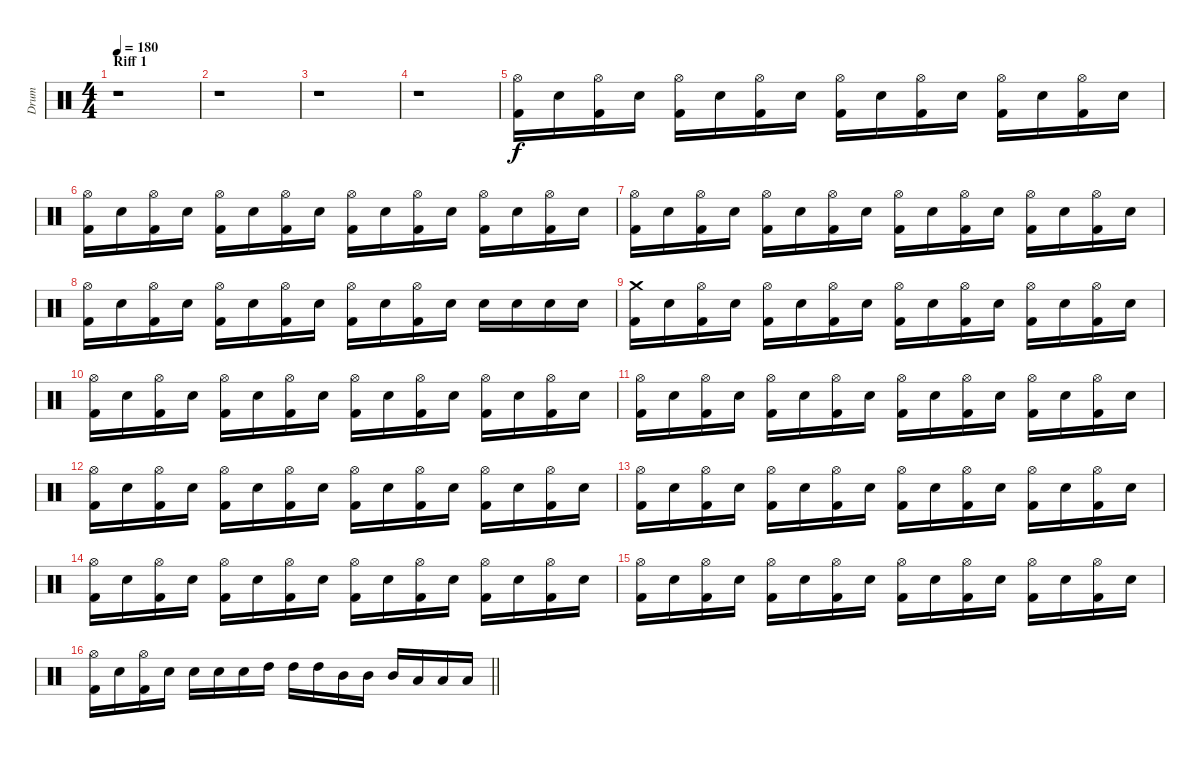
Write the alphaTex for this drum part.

\track ("Drum" "Drum") {instrument percussion}
\staff {score}
\articulation defaults
\ts (4 4)
\section ("" "Riff 1")
\tempo 180
\clef neutral
\ks c
r.1{dy f} |
r.1 |
r.1 |
r.1 |
("Hi-Hat (open)" "Kick (hit) 2").16 "Electric Snare (hit)".16 ("Hi-Hat (open)" "Kick (hit) 2").16 "Electric Snare (hit)".16 ("Hi-Hat (open)" "Kick (hit) 2").16 "Electric Snare (hit)".16 ("Hi-Hat (open)" "Kick (hit) 2").16 "Electric Snare (hit)".16 ("Hi-Hat (open)" "Kick (hit) 2").16 "Electric Snare (hit)".16 ("Hi-Hat (open)" "Kick (hit) 2").16 "Electric Snare (hit)".16 ("Hi-Hat (open)" "Kick (hit) 2").16 "Electric Snare (hit)".16 ("Hi-Hat (open)" "Kick (hit) 2").16 "Electric Snare (hit)".16 |
("Hi-Hat (open)" "Kick (hit) 2").16 "Electric Snare (hit)".16 ("Hi-Hat (open)" "Kick (hit) 2").16 "Electric Snare (hit)".16 ("Hi-Hat (open)" "Kick (hit) 2").16 "Electric Snare (hit)".16 ("Hi-Hat (open)" "Kick (hit) 2").16 "Electric Snare (hit)".16 ("Hi-Hat (open)" "Kick (hit) 2").16 "Electric Snare (hit)".16 ("Hi-Hat (open)" "Kick (hit) 2").16 "Electric Snare (hit)".16 ("Hi-Hat (open)" "Kick (hit) 2").16 "Electric Snare (hit)".16 ("Hi-Hat (open)" "Kick (hit) 2").16 "Electric Snare (hit)".16 |
("Hi-Hat (open)" "Kick (hit) 2").16 "Electric Snare (hit)".16 ("Hi-Hat (open)" "Kick (hit) 2").16 "Electric Snare (hit)".16 ("Hi-Hat (open)" "Kick (hit) 2").16 "Electric Snare (hit)".16 ("Hi-Hat (open)" "Kick (hit) 2").16 "Electric Snare (hit)".16 ("Hi-Hat (open)" "Kick (hit) 2").16 "Electric Snare (hit)".16 ("Hi-Hat (open)" "Kick (hit) 2").16 "Electric Snare (hit)".16 ("Hi-Hat (open)" "Kick (hit) 2").16 "Electric Snare (hit)".16 ("Hi-Hat (open)" "Kick (hit) 2").16 "Electric Snare (hit)".16 |
("Hi-Hat (open)" "Kick (hit) 2").16 "Electric Snare (hit)".16 ("Hi-Hat (open)" "Kick (hit) 2").16 "Electric Snare (hit)".16 ("Hi-Hat (open)" "Kick (hit) 2").16 "Electric Snare (hit)".16 ("Hi-Hat (open)" "Kick (hit) 2").16 "Electric Snare (hit)".16 ("Hi-Hat (open)" "Kick (hit) 2").16 "Electric Snare (hit)".16 ("Hi-Hat (open)" "Kick (hit) 2").16 "Electric Snare (hit)".16 "Electric Snare (hit)".16 "Electric Snare (hit)".16 "Electric Snare (hit)".16 "Electric Snare (hit)".16 |
("Crash medium (hit)" "Kick (hit) 2").16 "Electric Snare (hit)".16 ("Hi-Hat (open)" "Kick (hit) 2").16 "Electric Snare (hit)".16 ("Hi-Hat (open)" "Kick (hit) 2").16 "Electric Snare (hit)".16 ("Hi-Hat (open)" "Kick (hit) 2").16 "Electric Snare (hit)".16 ("Hi-Hat (open)" "Kick (hit) 2").16 "Electric Snare (hit)".16 ("Hi-Hat (open)" "Kick (hit) 2").16 "Electric Snare (hit)".16 ("Hi-Hat (open)" "Kick (hit) 2").16 "Electric Snare (hit)".16 ("Hi-Hat (open)" "Kick (hit) 2").16 "Electric Snare (hit)".16 |
("Hi-Hat (open)" "Kick (hit) 2").16 "Electric Snare (hit)".16 ("Hi-Hat (open)" "Kick (hit) 2").16 "Electric Snare (hit)".16 ("Hi-Hat (open)" "Kick (hit) 2").16 "Electric Snare (hit)".16 ("Hi-Hat (open)" "Kick (hit) 2").16 "Electric Snare (hit)".16 ("Hi-Hat (open)" "Kick (hit) 2").16 "Electric Snare (hit)".16 ("Hi-Hat (open)" "Kick (hit) 2").16 "Electric Snare (hit)".16 ("Hi-Hat (open)" "Kick (hit) 2").16 "Electric Snare (hit)".16 ("Hi-Hat (open)" "Kick (hit) 2").16 "Electric Snare (hit)".16 |
("Hi-Hat (open)" "Kick (hit) 2").16 "Electric Snare (hit)".16 ("Hi-Hat (open)" "Kick (hit) 2").16 "Electric Snare (hit)".16 ("Hi-Hat (open)" "Kick (hit) 2").16 "Electric Snare (hit)".16 ("Hi-Hat (open)" "Kick (hit) 2").16 "Electric Snare (hit)".16 ("Hi-Hat (open)" "Kick (hit) 2").16 "Electric Snare (hit)".16 ("Hi-Hat (open)" "Kick (hit) 2").16 "Electric Snare (hit)".16 ("Hi-Hat (open)" "Kick (hit) 2").16 "Electric Snare (hit)".16 ("Hi-Hat (open)" "Kick (hit) 2").16 "Electric Snare (hit)".16 |
("Hi-Hat (open)" "Kick (hit) 2").16 "Electric Snare (hit)".16 ("Hi-Hat (open)" "Kick (hit) 2").16 "Electric Snare (hit)".16 ("Hi-Hat (open)" "Kick (hit) 2").16 "Electric Snare (hit)".16 ("Hi-Hat (open)" "Kick (hit) 2").16 "Electric Snare (hit)".16 ("Hi-Hat (open)" "Kick (hit) 2").16 "Electric Snare (hit)".16 ("Hi-Hat (open)" "Kick (hit) 2").16 "Electric Snare (hit)".16 ("Hi-Hat (open)" "Kick (hit) 2").16 "Electric Snare (hit)".16 ("Hi-Hat (open)" "Kick (hit) 2").16 "Electric Snare (hit)".16 |
("Hi-Hat (open)" "Kick (hit) 2").16 "Electric Snare (hit)".16 ("Hi-Hat (open)" "Kick (hit) 2").16 "Electric Snare (hit)".16 ("Hi-Hat (open)" "Kick (hit) 2").16 "Electric Snare (hit)".16 ("Hi-Hat (open)" "Kick (hit) 2").16 "Electric Snare (hit)".16 ("Hi-Hat (open)" "Kick (hit) 2").16 "Electric Snare (hit)".16 ("Hi-Hat (open)" "Kick (hit) 2").16 "Electric Snare (hit)".16 ("Hi-Hat (open)" "Kick (hit) 2").16 "Electric Snare (hit)".16 ("Hi-Hat (open)" "Kick (hit) 2").16 "Electric Snare (hit)".16 |
("Hi-Hat (open)" "Kick (hit) 2").16 "Electric Snare (hit)".16 ("Hi-Hat (open)" "Kick (hit) 2").16 "Electric Snare (hit)".16 ("Hi-Hat (open)" "Kick (hit) 2").16 "Electric Snare (hit)".16 ("Hi-Hat (open)" "Kick (hit) 2").16 "Electric Snare (hit)".16 ("Hi-Hat (open)" "Kick (hit) 2").16 "Electric Snare (hit)".16 ("Hi-Hat (open)" "Kick (hit) 2").16 "Electric Snare (hit)".16 ("Hi-Hat (open)" "Kick (hit) 2").16 "Electric Snare (hit)".16 ("Hi-Hat (open)" "Kick (hit) 2").16 "Electric Snare (hit)".16 |
("Hi-Hat (open)" "Kick (hit) 2").16 "Electric Snare (hit)".16 ("Hi-Hat (open)" "Kick (hit) 2").16 "Electric Snare (hit)".16 ("Hi-Hat (open)" "Kick (hit) 2").16 "Electric Snare (hit)".16 ("Hi-Hat (open)" "Kick (hit) 2").16 "Electric Snare (hit)".16 ("Hi-Hat (open)" "Kick (hit) 2").16 "Electric Snare (hit)".16 ("Hi-Hat (open)" "Kick (hit) 2").16 "Electric Snare (hit)".16 ("Hi-Hat (open)" "Kick (hit) 2").16 "Electric Snare (hit)".16 ("Hi-Hat (open)" "Kick (hit) 2").16 "Electric Snare (hit)".16 |
\barLineRight lightlight
("Hi-Hat (open)" "Kick (hit) 2").16 "Electric Snare (hit)".16 ("Hi-Hat (open)" "Kick (hit) 2").16 "Electric Snare (hit)".16 "Electric Snare (hit)".16 "Electric Snare (hit)".16 "Electric Snare (hit)".16 "High Tom (hit)".16 "High Tom (hit)".16 "High Tom (hit)".16 "Mid Tom (hit)".16 "Mid Tom (hit)".16 "Mid Tom (hit)".16 "Low Tom (hit)".16 "Low Tom (hit)".16 "Low Tom (hit)".16
